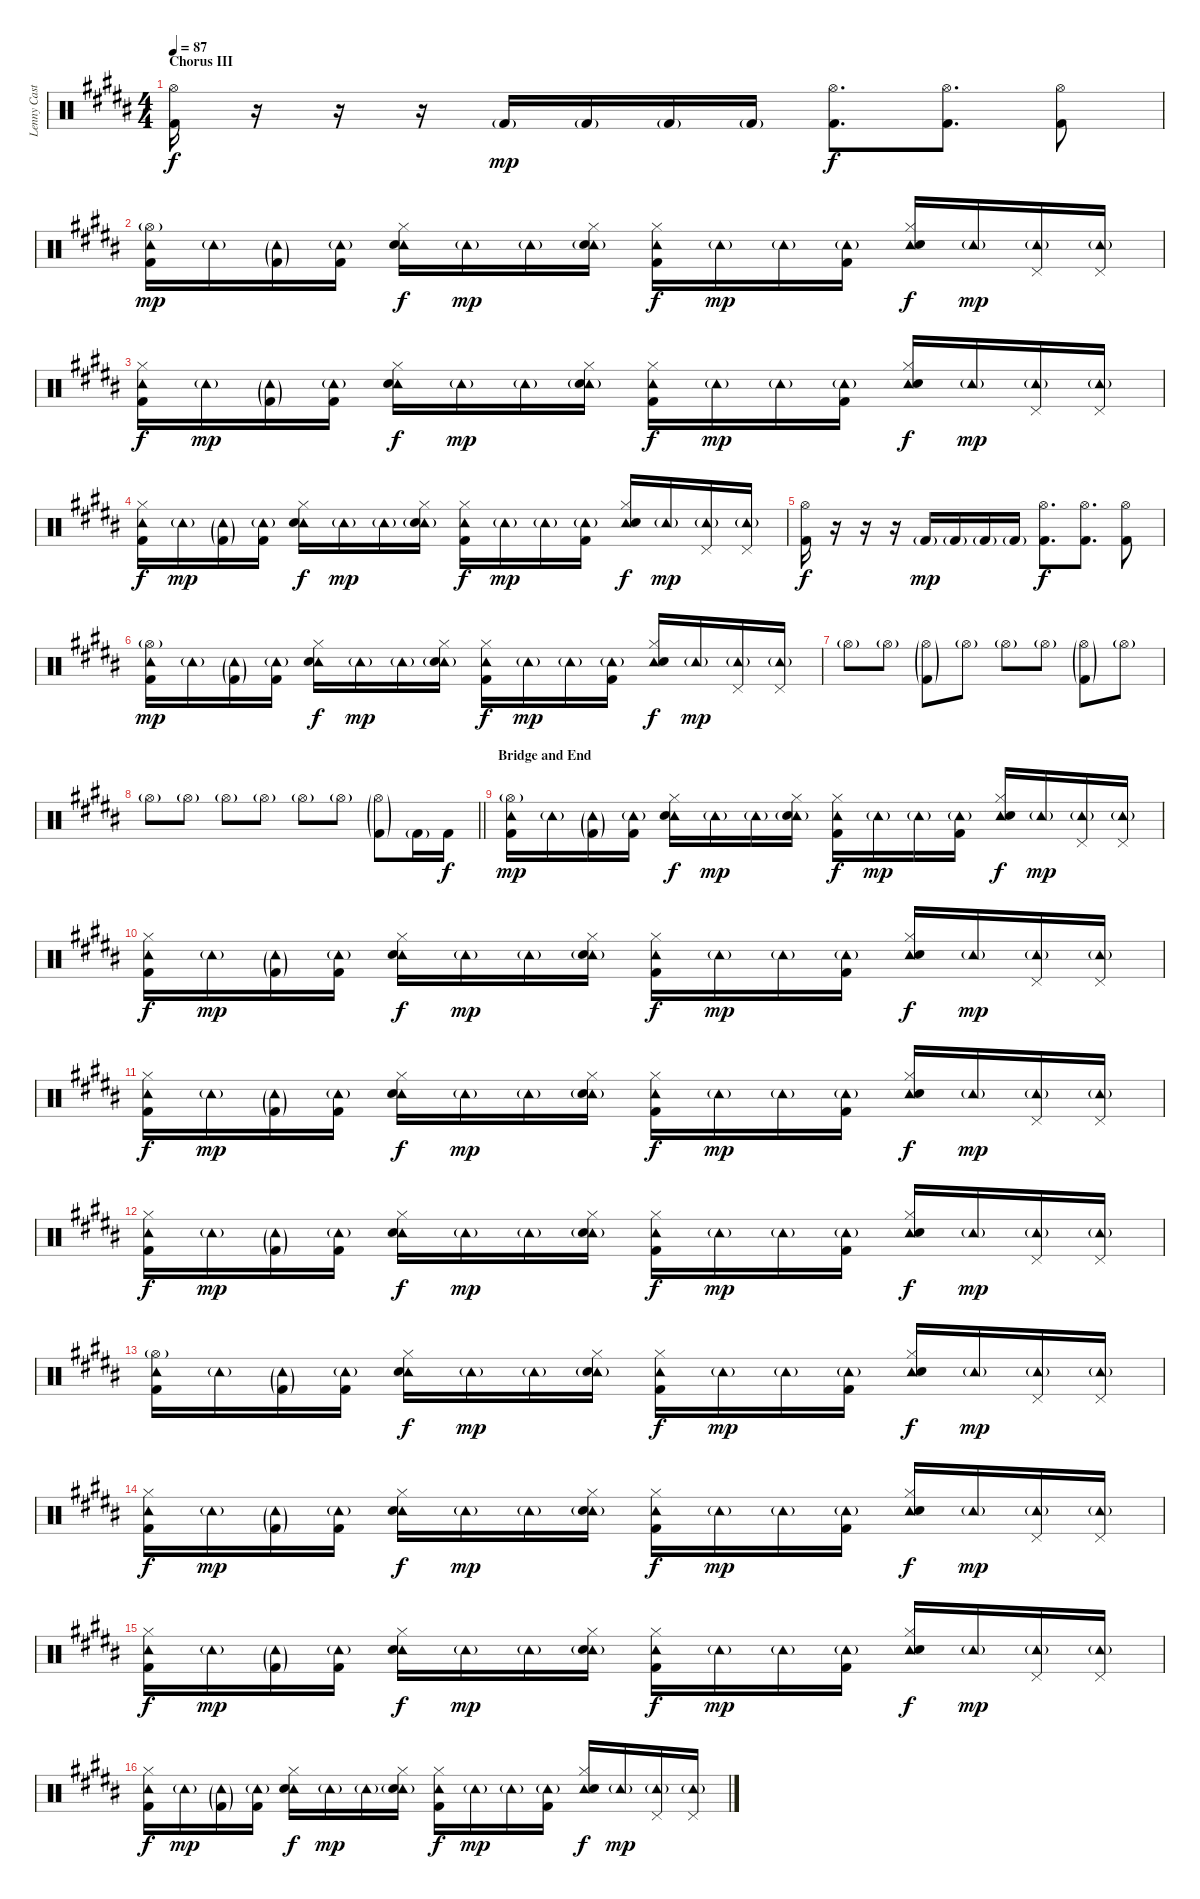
\track ("Lenny Castro (Drums)" "Lenny Cast") {instrument percussion}
\staff {score}
\articulation defaults
\ts (4 4)
\section ("" "Chorus III")
\tempo 87
\clef neutral
\ks b
("Hi-Hat (open)" "Kick (hit) 2").16{dy f} r.16 r.16 r.16 "Kick (hit) 2"{g}.16{dy mp} "Kick (hit) 2"{g}.16 "Kick (hit) 2"{g}.16 "Kick (hit) 2"{g}.16 ("Hi-Hat (open)" "Kick (hit) 2").8{d dy f} ("Hi-Hat (open)" "Kick (hit) 2").8{d} ("Hi-Hat (open)" "Kick (hit) 2").8 |
("Hi-Hat (open)"{g} "Tambourine (hit)" "Kick (hit) 2").16{dy mp} "Tambourine (hit)"{g}.16 ("Tambourine (hit)"{g} "Kick (hit) 2"{g}).16 ("Tambourine (hit)"{g} "Kick (hit) 2").16 ("Hi-Hat (closed)" "Tambourine (hit)" "Electric Snare (hit)").16{dy f} "Tambourine (hit)"{g}.16{dy mp} "Tambourine (hit)"{g}.16 ("Hi-Hat (closed)" "Tambourine (hit)"{g} "Electric Snare (hit)"{g}).16 ("Hi-Hat (closed)" "Tambourine (hit)" "Kick (hit) 2").16{dy f} "Tambourine (hit)"{g}.16{dy mp} "Tambourine (hit)"{g}.16 ("Tambourine (hit)"{g} "Kick (hit) 2").16 ("Hi-Hat (closed)" "Tambourine (hit)" "Electric Snare (hit)").16{dy f} "Tambourine (hit)"{g}.16{dy mp} ("Pedal Hi-Hat (hit)" "Tambourine (hit)"{g}).16 ("Pedal Hi-Hat (hit)" "Tambourine (hit)"{g}).16 |
("Hi-Hat (closed)" "Tambourine (hit)" "Kick (hit) 2").16{dy f} "Tambourine (hit)"{g}.16{dy mp} ("Tambourine (hit)"{g} "Kick (hit) 2"{g}).16 ("Tambourine (hit)"{g} "Kick (hit) 2").16 ("Hi-Hat (closed)" "Tambourine (hit)" "Electric Snare (hit)").16{dy f} "Tambourine (hit)"{g}.16{dy mp} "Tambourine (hit)"{g}.16 ("Hi-Hat (closed)" "Tambourine (hit)"{g} "Electric Snare (hit)"{g}).16 ("Hi-Hat (closed)" "Tambourine (hit)" "Kick (hit) 2").16{dy f} "Tambourine (hit)"{g}.16{dy mp} "Tambourine (hit)"{g}.16 ("Tambourine (hit)"{g} "Kick (hit) 2").16 ("Hi-Hat (closed)" "Tambourine (hit)" "Electric Snare (hit)").16{dy f} "Tambourine (hit)"{g}.16{dy mp} ("Pedal Hi-Hat (hit)" "Tambourine (hit)"{g}).16 ("Pedal Hi-Hat (hit)" "Tambourine (hit)"{g}).16 |
("Hi-Hat (closed)" "Tambourine (hit)" "Kick (hit) 2").16{dy f} "Tambourine (hit)"{g}.16{dy mp} ("Tambourine (hit)"{g} "Kick (hit) 2"{g}).16 ("Tambourine (hit)"{g} "Kick (hit) 2").16 ("Hi-Hat (closed)" "Tambourine (hit)" "Electric Snare (hit)").16{dy f} "Tambourine (hit)"{g}.16{dy mp} "Tambourine (hit)"{g}.16 ("Hi-Hat (closed)" "Tambourine (hit)"{g} "Electric Snare (hit)"{g}).16 ("Hi-Hat (closed)" "Tambourine (hit)" "Kick (hit) 2").16{dy f} "Tambourine (hit)"{g}.16{dy mp} "Tambourine (hit)"{g}.16 ("Tambourine (hit)"{g} "Kick (hit) 2").16 ("Hi-Hat (closed)" "Tambourine (hit)" "Electric Snare (hit)").16{dy f} "Tambourine (hit)"{g}.16{dy mp} ("Pedal Hi-Hat (hit)" "Tambourine (hit)"{g}).16 ("Pedal Hi-Hat (hit)" "Tambourine (hit)"{g}).16 |
("Hi-Hat (open)" "Kick (hit) 2").16{dy f} r.16 r.16 r.16 "Kick (hit) 2"{g}.16{dy mp} "Kick (hit) 2"{g}.16 "Kick (hit) 2"{g}.16 "Kick (hit) 2"{g}.16 ("Hi-Hat (open)" "Kick (hit) 2").8{d dy f} ("Hi-Hat (open)" "Kick (hit) 2").8{d} ("Hi-Hat (open)" "Kick (hit) 2").8 |
("Hi-Hat (open)"{g} "Tambourine (hit)" "Kick (hit) 2").16{dy mp} "Tambourine (hit)"{g}.16 ("Tambourine (hit)"{g} "Kick (hit) 2"{g}).16 ("Tambourine (hit)"{g} "Kick (hit) 2").16 ("Hi-Hat (closed)" "Tambourine (hit)" "Electric Snare (hit)").16{dy f} "Tambourine (hit)"{g}.16{dy mp} "Tambourine (hit)"{g}.16 ("Hi-Hat (closed)" "Tambourine (hit)"{g} "Electric Snare (hit)"{g}).16 ("Hi-Hat (closed)" "Tambourine (hit)" "Kick (hit) 2").16{dy f} "Tambourine (hit)"{g}.16{dy mp} "Tambourine (hit)"{g}.16 ("Tambourine (hit)"{g} "Kick (hit) 2").16 ("Hi-Hat (closed)" "Tambourine (hit)" "Electric Snare (hit)").16{dy f} "Tambourine (hit)"{g}.16{dy mp} ("Pedal Hi-Hat (hit)" "Tambourine (hit)"{g}).16 ("Pedal Hi-Hat (hit)" "Tambourine (hit)"{g}).16 |
"Hi-Hat (open)"{g}.8 "Hi-Hat (open)"{g}.8 ("Hi-Hat (open)"{g} "Kick (hit) 2"{g}).8 "Hi-Hat (open)"{g}.8 "Hi-Hat (open)"{g}.8 "Hi-Hat (open)"{g}.8 ("Hi-Hat (open)"{g} "Kick (hit) 2"{g}).8 "Hi-Hat (open)"{g}.8 |
\barLineRight lightlight "Hi-Hat (open)"{g}.8 "Hi-Hat (open)"{g}.8 "Hi-Hat (open)"{g}.8 "Hi-Hat (open)"{g}.8 "Hi-Hat (open)"{g}.8 "Hi-Hat (open)"{g}.8
("Hi-Hat (open)"{g} "Kick (hit) 2"{g}).8 "Kick (hit) 2"{g}.16 "Kick (hit) 2".16{dy f} |
\section ("" "Bridge and End")
("Hi-Hat (open)"{g} "Tambourine (hit)" "Kick (hit) 2").16{dy mp} "Tambourine (hit)"{g}.16 ("Tambourine (hit)"{g} "Kick (hit) 2"{g}).16 ("Tambourine (hit)"{g} "Kick (hit) 2").16 ("Hi-Hat (closed)" "Tambourine (hit)" "Electric Snare (hit)").16{dy f} "Tambourine (hit)"{g}.16{dy mp} "Tambourine (hit)"{g}.16 ("Hi-Hat (closed)" "Tambourine (hit)"{g} "Electric Snare (hit)"{g}).16 ("Hi-Hat (closed)" "Tambourine (hit)" "Kick (hit) 2").16{dy f} "Tambourine (hit)"{g}.16{dy mp} "Tambourine (hit)"{g}.16 ("Tambourine (hit)"{g} "Kick (hit) 2").16 ("Hi-Hat (closed)" "Tambourine (hit)" "Electric Snare (hit)").16{dy f} "Tambourine (hit)"{g}.16{dy mp} ("Pedal Hi-Hat (hit)" "Tambourine (hit)"{g}).16 ("Pedal Hi-Hat (hit)" "Tambourine (hit)"{g}).16 |
("Hi-Hat (closed)" "Tambourine (hit)" "Kick (hit) 2").16{dy f} "Tambourine (hit)"{g}.16{dy mp} ("Tambourine (hit)"{g} "Kick (hit) 2"{g}).16 ("Tambourine (hit)"{g} "Kick (hit) 2").16 ("Hi-Hat (closed)" "Tambourine (hit)" "Electric Snare (hit)").16{dy f} "Tambourine (hit)"{g}.16{dy mp} "Tambourine (hit)"{g}.16 ("Hi-Hat (closed)" "Tambourine (hit)"{g} "Electric Snare (hit)"{g}).16 ("Hi-Hat (closed)" "Tambourine (hit)" "Kick (hit) 2").16{dy f} "Tambourine (hit)"{g}.16{dy mp} "Tambourine (hit)"{g}.16 ("Tambourine (hit)"{g} "Kick (hit) 2").16 ("Hi-Hat (closed)" "Tambourine (hit)" "Electric Snare (hit)").16{dy f} "Tambourine (hit)"{g}.16{dy mp} ("Pedal Hi-Hat (hit)" "Tambourine (hit)"{g}).16 ("Pedal Hi-Hat (hit)" "Tambourine (hit)"{g}).16 |
("Hi-Hat (closed)" "Tambourine (hit)" "Kick (hit) 2").16{dy f} "Tambourine (hit)"{g}.16{dy mp} ("Tambourine (hit)"{g} "Kick (hit) 2"{g}).16 ("Tambourine (hit)"{g} "Kick (hit) 2").16 ("Hi-Hat (closed)" "Tambourine (hit)" "Electric Snare (hit)").16{dy f} "Tambourine (hit)"{g}.16{dy mp} "Tambourine (hit)"{g}.16 ("Hi-Hat (closed)" "Tambourine (hit)"{g} "Electric Snare (hit)"{g}).16 ("Hi-Hat (closed)" "Tambourine (hit)" "Kick (hit) 2").16{dy f} "Tambourine (hit)"{g}.16{dy mp} "Tambourine (hit)"{g}.16 ("Tambourine (hit)"{g} "Kick (hit) 2").16 ("Hi-Hat (closed)" "Tambourine (hit)" "Electric Snare (hit)").16{dy f} "Tambourine (hit)"{g}.16{dy mp} ("Pedal Hi-Hat (hit)" "Tambourine (hit)"{g}).16 ("Pedal Hi-Hat (hit)" "Tambourine (hit)"{g}).16 |
("Hi-Hat (closed)" "Tambourine (hit)" "Kick (hit) 2").16{dy f} "Tambourine (hit)"{g}.16{dy mp} ("Tambourine (hit)"{g} "Kick (hit) 2"{g}).16 ("Tambourine (hit)"{g} "Kick (hit) 2").16 ("Hi-Hat (closed)" "Tambourine (hit)" "Electric Snare (hit)").16{dy f} "Tambourine (hit)"{g}.16{dy mp} "Tambourine (hit)"{g}.16 ("Hi-Hat (closed)" "Tambourine (hit)"{g} "Electric Snare (hit)"{g}).16 ("Hi-Hat (closed)" "Tambourine (hit)" "Kick (hit) 2").16{dy f} "Tambourine (hit)"{g}.16{dy mp} "Tambourine (hit)"{g}.16 ("Tambourine (hit)"{g} "Kick (hit) 2").16 ("Hi-Hat (closed)" "Tambourine (hit)" "Electric Snare (hit)").16{dy f} "Tambourine (hit)"{g}.16{dy mp} ("Pedal Hi-Hat (hit)" "Tambourine (hit)"{g}).16 ("Pedal Hi-Hat (hit)" "Tambourine (hit)"{g}).16 |
("Hi-Hat (open)"{g} "Tambourine (hit)" "Kick (hit) 2").16 "Tambourine (hit)"{g}.16 ("Tambourine (hit)"{g} "Kick (hit) 2"{g}).16 ("Tambourine (hit)"{g} "Kick (hit) 2").16 ("Hi-Hat (closed)" "Tambourine (hit)" "Electric Snare (hit)").16{dy f} "Tambourine (hit)"{g}.16{dy mp} "Tambourine (hit)"{g}.16 ("Hi-Hat (closed)" "Tambourine (hit)"{g} "Electric Snare (hit)"{g}).16 ("Hi-Hat (closed)" "Tambourine (hit)" "Kick (hit) 2").16{dy f} "Tambourine (hit)"{g}.16{dy mp} "Tambourine (hit)"{g}.16 ("Tambourine (hit)"{g} "Kick (hit) 2").16 ("Hi-Hat (closed)" "Tambourine (hit)" "Electric Snare (hit)").16{dy f} "Tambourine (hit)"{g}.16{dy mp} ("Pedal Hi-Hat (hit)" "Tambourine (hit)"{g}).16 ("Pedal Hi-Hat (hit)" "Tambourine (hit)"{g}).16 |
("Hi-Hat (closed)" "Tambourine (hit)" "Kick (hit) 2").16{dy f} "Tambourine (hit)"{g}.16{dy mp} ("Tambourine (hit)"{g} "Kick (hit) 2"{g}).16 ("Tambourine (hit)"{g} "Kick (hit) 2").16 ("Hi-Hat (closed)" "Tambourine (hit)" "Electric Snare (hit)").16{dy f} "Tambourine (hit)"{g}.16{dy mp} "Tambourine (hit)"{g}.16 ("Hi-Hat (closed)" "Tambourine (hit)"{g} "Electric Snare (hit)"{g}).16 ("Hi-Hat (closed)" "Tambourine (hit)" "Kick (hit) 2").16{dy f} "Tambourine (hit)"{g}.16{dy mp} "Tambourine (hit)"{g}.16 ("Tambourine (hit)"{g} "Kick (hit) 2").16 ("Hi-Hat (closed)" "Tambourine (hit)" "Electric Snare (hit)").16{dy f} "Tambourine (hit)"{g}.16{dy mp} ("Pedal Hi-Hat (hit)" "Tambourine (hit)"{g}).16 ("Pedal Hi-Hat (hit)" "Tambourine (hit)"{g}).16 |
("Hi-Hat (closed)" "Tambourine (hit)" "Kick (hit) 2").16{dy f} "Tambourine (hit)"{g}.16{dy mp} ("Tambourine (hit)"{g} "Kick (hit) 2"{g}).16 ("Tambourine (hit)"{g} "Kick (hit) 2").16 ("Hi-Hat (closed)" "Tambourine (hit)" "Electric Snare (hit)").16{dy f} "Tambourine (hit)"{g}.16{dy mp} "Tambourine (hit)"{g}.16 ("Hi-Hat (closed)" "Tambourine (hit)"{g} "Electric Snare (hit)"{g}).16 ("Hi-Hat (closed)" "Tambourine (hit)" "Kick (hit) 2").16{dy f} "Tambourine (hit)"{g}.16{dy mp} "Tambourine (hit)"{g}.16 ("Tambourine (hit)"{g} "Kick (hit) 2").16 ("Hi-Hat (closed)" "Tambourine (hit)" "Electric Snare (hit)").16{dy f} "Tambourine (hit)"{g}.16{dy mp} ("Pedal Hi-Hat (hit)" "Tambourine (hit)"{g}).16 ("Pedal Hi-Hat (hit)" "Tambourine (hit)"{g}).16 |
("Hi-Hat (closed)" "Tambourine (hit)" "Kick (hit) 2").16{dy f} "Tambourine (hit)"{g}.16{dy mp} ("Tambourine (hit)"{g} "Kick (hit) 2"{g}).16 ("Tambourine (hit)"{g} "Kick (hit) 2").16 ("Hi-Hat (closed)" "Tambourine (hit)" "Electric Snare (hit)").16{dy f} "Tambourine (hit)"{g}.16{dy mp} "Tambourine (hit)"{g}.16 ("Hi-Hat (closed)" "Tambourine (hit)"{g} "Electric Snare (hit)"{g}).16 ("Hi-Hat (closed)" "Tambourine (hit)" "Kick (hit) 2").16{dy f} "Tambourine (hit)"{g}.16{dy mp} "Tambourine (hit)"{g}.16 ("Tambourine (hit)"{g} "Kick (hit) 2").16 ("Hi-Hat (closed)" "Tambourine (hit)" "Electric Snare (hit)").16{dy f} "Tambourine (hit)"{g}.16{dy mp} ("Pedal Hi-Hat (hit)" "Tambourine (hit)"{g}).16 ("Pedal Hi-Hat (hit)" "Tambourine (hit)"{g}).16
